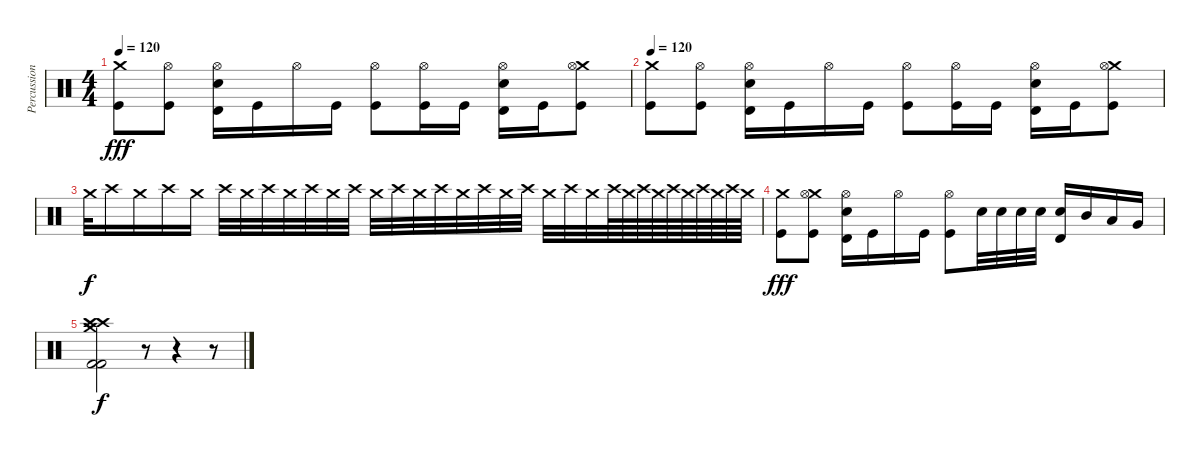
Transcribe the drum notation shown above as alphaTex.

\track ("Percussion" "Percussion") {instrument percussion}
\staff {score}
\articulation defaults
\ts (4 4)
\tempo 120
\clef neutral
\ks c
("Crash medium (hit)" "Kick (hit)").8{dy fff} ("Hi-Hat (open)" "Kick (hit)").8 ("Hi-Hat (open)" "Electric Snare (hit)" "Timbale high (hit)").16 "Kick (hit)".16 "Hi-Hat (open)".16 "Kick (hit)".16 ("Hi-Hat (open)" "Kick (hit)").8 ("Hi-Hat (open)" "Kick (hit)").16 "Kick (hit)".16 ("Hi-Hat (open)" "Electric Snare (hit)" "Timbale high (hit)").16 "Kick (hit)".16 ("Crash medium (hit)" "Hi-Hat (open)" "Kick (hit)").8 |
\tempo 120
("Crash medium (hit)" "Kick (hit)").8 ("Hi-Hat (open)" "Kick (hit)").8 ("Hi-Hat (open)" "Electric Snare (hit)" "Timbale high (hit)").16 "Kick (hit)".16 "Hi-Hat (open)".16 "Kick (hit)".16 ("Hi-Hat (open)" "Kick (hit)").8 ("Hi-Hat (open)" "Kick (hit)").16 "Kick (hit)".16 ("Hi-Hat (open)" "Electric Snare (hit)" "Timbale high (hit)").16 "Kick (hit)".16 ("Crash medium (hit)" "Hi-Hat (open)" "Kick (hit)").8 |
"Crash medium (hit)".32{dy f volume 2} "Crash high (hit)".16{volume 15} "Crash medium (hit)".16 "Crash high (hit)".16 "Crash medium (hit)".16 "Crash high (hit)".32 "Crash medium (hit)".32 "Crash high (hit)".32 "Crash medium (hit)".32 "Crash high (hit)".32 "Crash medium (hit)".32 "Crash high (hit)".32 "Crash medium (hit)".32 "Crash high (hit)".32 "Crash medium (hit)".32 "Crash high (hit)".32 "Crash medium (hit)".32 "Crash high (hit)".32 "Crash medium (hit)".32 "Crash high (hit)".32 "Crash medium (hit)".32 "Crash high (hit)".32 "Crash medium (hit)".32 "Crash high (hit)".64 "Crash medium (hit)".64 "Crash high (hit)".64 "Crash medium (hit)".64 "Crash high (hit)".64 "Crash medium (hit)".64 "Crash high (hit)".64 "Crash medium (hit)".64 "Crash high (hit)".64 "Crash medium (hit)".64 |
("Crash medium (hit)" "Kick (hit)").8{dy fff} ("Crash medium (hit)" "Hi-Hat (open)" "Kick (hit)").8 ("Hi-Hat (open)" "Electric Snare (hit)" "Timbale high (hit)").16 "Kick (hit)".16 "Hi-Hat (open)".16 "Kick (hit)".16 ("Hi-Hat (open)" "Kick (hit)").8 "Electric Snare (hit)".32 "Electric Snare (hit)".32 "Electric Snare (hit)".32 "Electric Snare (hit)".32 ("Electric Snare (hit)" "Timbale high (hit)").16 "Mid Tom (hit)".16 "Low Tom (hit)".16 "Very Low Tom (hit)".16 |
("Crash high (hit)" "Crash high (hit)" "Kick (hit) 2" "Crash medium (hit)" "Kick (hit) 2").2{dy f} r.8 r.4 r.8
